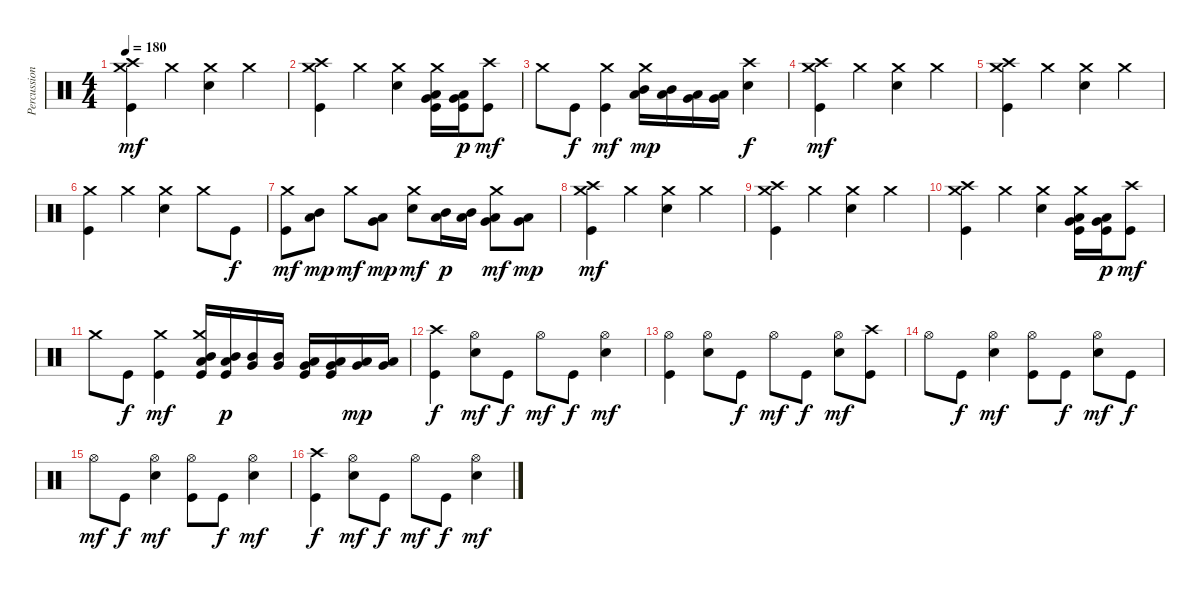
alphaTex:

\track ("Percussions" "Percussion") {instrument percussion}
\staff {score}
\articulation defaults
\ts (4 4)
\tempo 180
\clef neutral
\ks c
("Kick (hit)" "Crash medium (hit)" "Crash high (hit)").4{dy mf} "Crash medium (hit)".4 ("Electric Snare (hit)" "Crash medium (hit)").4 "Crash medium (hit)".4 |
("Kick (hit)" "Crash medium (hit)" "Crash high (hit)").4 "Crash medium (hit)".4 ("Electric Snare (hit)" "Crash medium (hit)").4 ("Kick (hit)" "Very Low Tom (hit)" "Low Tom (hit)" "Crash medium (hit)").16 ("Kick (hit)" "Very Low Tom (hit)" "Low Tom (hit)").16{dy p} ("Kick (hit)" "Crash high (hit)").8{dy mf} |
"Crash medium (hit)".8 "Kick (hit)".8{dy f} ("Kick (hit)" "Crash medium (hit)").4{dy mf} ("Low Tom (hit)" "Mid Tom (hit)" "Crash medium (hit)").16{dy mp} ("Low Tom (hit)" "Mid Tom (hit)").16 ("Very Low Tom (hit)" "Low Tom (hit)").16 ("Very Low Tom (hit)" "Low Tom (hit)").16 ("Electric Snare (hit)" "Crash high (hit)").4{dy f} |
("Kick (hit)" "Crash medium (hit)" "Crash high (hit)").4{dy mf} "Crash medium (hit)".4 ("Electric Snare (hit)" "Crash medium (hit)").4 "Crash medium (hit)".4 |
("Kick (hit)" "Crash medium (hit)" "Crash high (hit)").4 "Crash medium (hit)".4 ("Electric Snare (hit)" "Crash medium (hit)").4 "Crash medium (hit)".4 |
("Kick (hit)" "Crash medium (hit)").4 "Crash medium (hit)".4 ("Electric Snare (hit)" "Crash medium (hit)").4 "Crash medium (hit)".8 "Kick (hit)".8{dy f} |
("Kick (hit)" "Crash medium (hit)").8{dy mf} ("Low Tom (hit)" "Mid Tom (hit)").8{dy mp} "Crash medium (hit)".8{dy mf} ("Low Floor Tom (hit)" "Very Low Tom (hit)").8{dy mp} ("Electric Snare (hit)" "Crash medium (hit)").8{dy mf} ("Low Tom (hit)" "Mid Tom (hit)").16{dy p} ("Low Tom (hit)" "Mid Tom (hit)").16 ("Very Low Tom (hit)" "Low Tom (hit)" "Crash medium (hit)").8{dy mf} ("Low Floor Tom (hit)" "Very Low Tom (hit)").8{dy mp} |
("Kick (hit)" "Crash medium (hit)" "Crash high (hit)").4{dy mf} "Crash medium (hit)".4 ("Electric Snare (hit)" "Crash medium (hit)").4 "Crash medium (hit)".4 |
("Kick (hit)" "Crash medium (hit)" "Crash high (hit)").4 "Crash medium (hit)".4 ("Electric Snare (hit)" "Crash medium (hit)").4 "Crash medium (hit)".4 |
("Kick (hit)" "Crash medium (hit)" "Crash high (hit)").4 "Crash medium (hit)".4 ("Electric Snare (hit)" "Crash medium (hit)").4 ("Kick (hit)" "Very Low Tom (hit)" "Low Tom (hit)" "Crash medium (hit)").16 ("Kick (hit)" "Very Low Tom (hit)" "Low Tom (hit)").16{dy p} ("Kick (hit)" "Crash high (hit)").8{dy mf} |
"Crash medium (hit)".8 "Kick (hit)".8{dy f} ("Kick (hit)" "Crash medium (hit)").4{dy mf} ("Kick (hit)" "Low Tom (hit)" "Mid Tom (hit)" "Crash medium (hit)").16 ("Kick (hit)" "Low Tom (hit)" "Mid Tom (hit)").16{dy p} ("Very Low Tom (hit)" "Mid Tom (hit)").16 ("Very Low Tom (hit)" "Mid Tom (hit)").16 ("Kick (hit)" "Very Low Tom (hit)" "Low Tom (hit)").16 ("Kick (hit)" "Very Low Tom (hit)" "Low Tom (hit)").16 ("Low Floor Tom (hit)" "Very Low Tom (hit)").16{dy mp} ("Low Floor Tom (hit)" "Very Low Tom (hit)").16 |
("Kick (hit)" "Crash high (hit)").4{dy f} ("Electric Snare (hit)" "Hi-Hat (open)").8{dy mf} "Kick (hit)".8{dy f} "Hi-Hat (open)".8{dy mf} "Kick (hit)".8{dy f} ("Electric Snare (hit)" "Hi-Hat (open)").4{dy mf} |
("Kick (hit)" "Hi-Hat (open)").4 ("Electric Snare (hit)" "Hi-Hat (open)").8 "Kick (hit)".8{dy f} "Hi-Hat (open)".8{dy mf} "Kick (hit)".8{dy f} ("Electric Snare (hit)" "Hi-Hat (open)").8{dy mf} ("Kick (hit)" "Crash high (hit)").8 |
"Hi-Hat (open)".8 "Kick (hit)".8{dy f} ("Electric Snare (hit)" "Hi-Hat (open)").4{dy mf} ("Kick (hit)" "Hi-Hat (open)").8 "Kick (hit)".8{dy f} ("Electric Snare (hit)" "Hi-Hat (open)").8{dy mf} "Kick (hit)".8{dy f} |
"Hi-Hat (open)".8{dy mf} "Kick (hit)".8{dy f} ("Electric Snare (hit)" "Hi-Hat (open)").4{dy mf} ("Kick (hit)" "Hi-Hat (open)").8 "Kick (hit)".8{dy f} ("Electric Snare (hit)" "Hi-Hat (open)").4{dy mf} |
("Kick (hit)" "Crash high (hit)").4{dy f} ("Electric Snare (hit)" "Hi-Hat (open)").8{dy mf} "Kick (hit)".8{dy f} "Hi-Hat (open)".8{dy mf} "Kick (hit)".8{dy f} ("Electric Snare (hit)" "Hi-Hat (open)").4{dy mf}
